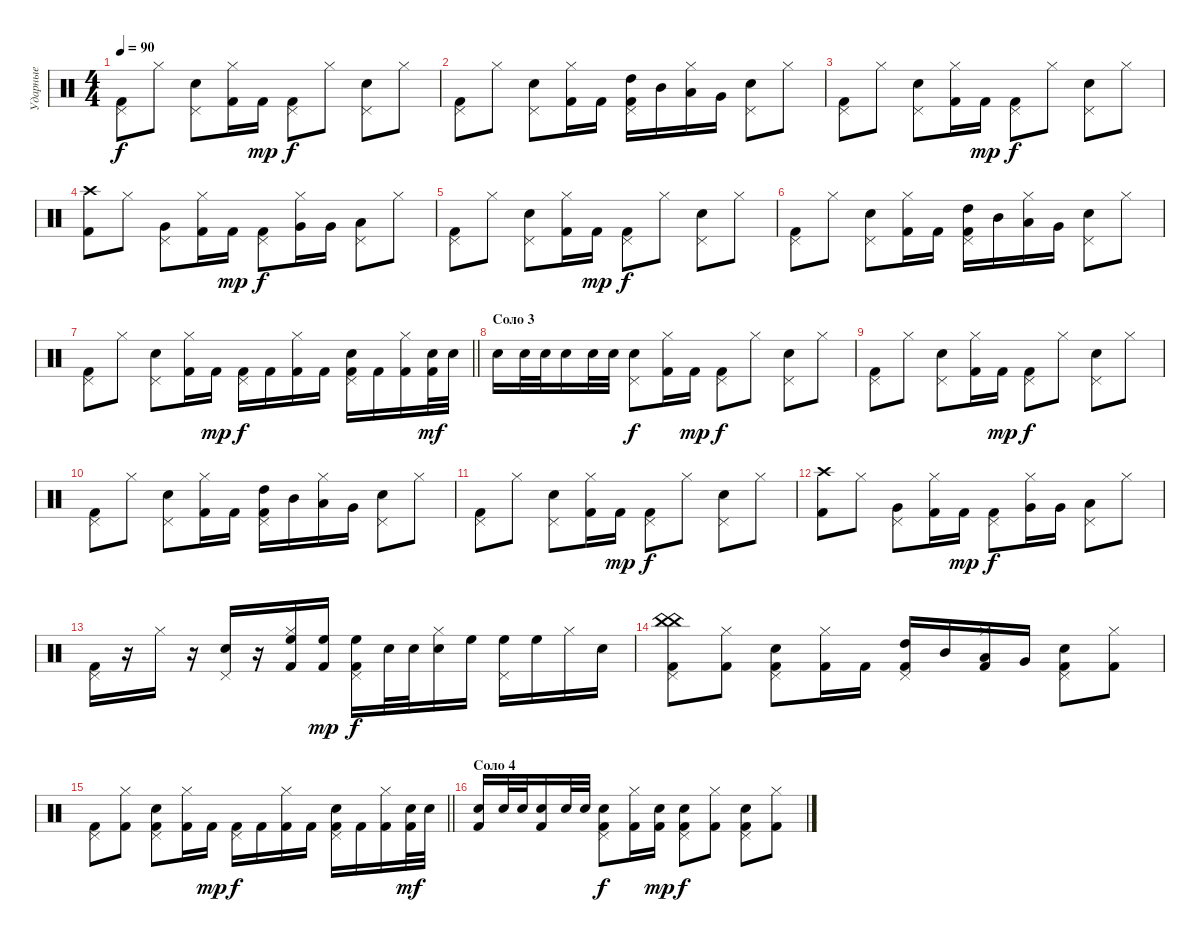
\track ("Ударные" "Ударные") {instrument percussion}
\staff {score}
\articulation defaults
\ts (4 4)
\tempo 90
\clef neutral
\ks c
("Pedal Hi-Hat (hit)" "Kick (hit) 2").8{dy f} "Hi-Hat (closed)".8 ("Pedal Hi-Hat (hit)" "Snare (hit) 2").8 ("Hi-Hat (closed)" "Kick (hit) 2").16 "Kick (hit) 2".16{dy mp} ("Pedal Hi-Hat (hit)" "Kick (hit) 2").8{dy f} "Hi-Hat (closed)".8 ("Pedal Hi-Hat (hit)" "Snare (hit) 2").8 "Hi-Hat (closed)".8 |
("Pedal Hi-Hat (hit)" "Kick (hit) 2").8 "Hi-Hat (closed)".8 ("Pedal Hi-Hat (hit)" "Snare (hit) 2").8 ("Hi-Hat (closed)" "Kick (hit) 2").16 "Kick (hit) 2".16 ("Pedal Hi-Hat (hit)" "High Tom (hit)" "Kick (hit) 2").16 "Mid Tom (hit)".16 ("Hi-Hat (closed)" "Low Tom (hit)").16 "Very Low Tom (hit)".16 ("Pedal Hi-Hat (hit)" "Snare (hit) 2").8 "Hi-Hat (closed)".8 |
("Pedal Hi-Hat (hit)" "Kick (hit) 2").8 "Hi-Hat (closed)".8 ("Pedal Hi-Hat (hit)" "Snare (hit) 2").8 ("Hi-Hat (closed)" "Kick (hit) 2").16 "Kick (hit) 2".16{dy mp} ("Pedal Hi-Hat (hit)" "Kick (hit) 2").8{dy f} "Hi-Hat (closed)".8 ("Pedal Hi-Hat (hit)" "Snare (hit) 2").8 "Hi-Hat (closed)".8 |
("Crash high (hit)" "Kick (hit) 2").8 "Hi-Hat (closed)".8 ("Pedal Hi-Hat (hit)" "Very Low Tom (hit)").8 ("Hi-Hat (closed)" "Kick (hit) 2").16 "Kick (hit) 2".16{dy mp} ("Pedal Hi-Hat (hit)" "Kick (hit) 2").8{dy f} ("Hi-Hat (closed)" "Very Low Tom (hit)").16 "Very Low Tom (hit)".16 ("Pedal Hi-Hat (hit)" "Low Floor Tom (hit)").8 "Hi-Hat (closed)".8 |
("Pedal Hi-Hat (hit)" "Kick (hit) 2").8 "Hi-Hat (closed)".8 ("Pedal Hi-Hat (hit)" "Snare (hit) 2").8 ("Hi-Hat (closed)" "Kick (hit) 2").16 "Kick (hit) 2".16{dy mp} ("Pedal Hi-Hat (hit)" "Kick (hit) 2").8{dy f} "Hi-Hat (closed)".8 ("Pedal Hi-Hat (hit)" "Snare (hit) 2").8 "Hi-Hat (closed)".8 |
("Pedal Hi-Hat (hit)" "Kick (hit) 2").8 "Hi-Hat (closed)".8 ("Pedal Hi-Hat (hit)" "Snare (hit) 2").8 ("Hi-Hat (closed)" "Kick (hit) 2").16 "Kick (hit) 2".16 ("Pedal Hi-Hat (hit)" "High Tom (hit)" "Kick (hit) 2").16 "Mid Tom (hit)".16 ("Hi-Hat (closed)" "Low Tom (hit)").16 "Very Low Tom (hit)".16 ("Pedal Hi-Hat (hit)" "Snare (hit) 2").8 "Hi-Hat (closed)".8 |
\barLineRight lightlight
("Pedal Hi-Hat (hit)" "Kick (hit) 2").8 "Hi-Hat (closed)".8 ("Pedal Hi-Hat (hit)" "Snare (hit) 2").8 ("Hi-Hat (closed)" "Kick (hit) 2").16 "Kick (hit) 2".16{dy mp} ("Pedal Hi-Hat (hit)" "Kick (hit) 2").16{dy f} "Kick (hit) 2".16 ("Hi-Hat (closed)" "Kick (hit) 2").16 "Kick (hit) 2".16 ("Pedal Hi-Hat (hit)" "Snare (hit) 2" "Kick (hit) 2").16 "Kick (hit) 2".16 ("Hi-Hat (closed)" "Kick (hit) 2").16 ("Snare (hit) 2" "Kick (hit) 2").32{dy mf} "Snare (hit) 2".32 |
\section ("" "Соло 3")
"Snare (hit) 2".16 "Snare (hit) 2".32 "Snare (hit) 2".32 "Snare (hit) 2".16 "Snare (hit) 2".32 "Snare (hit) 2".32 ("Pedal Hi-Hat (hit)" "Snare (hit) 2").8{dy f} ("Hi-Hat (closed)" "Kick (hit) 2").16 "Kick (hit) 2".16{dy mp} ("Pedal Hi-Hat (hit)" "Kick (hit) 2").8{dy f} "Hi-Hat (closed)".8 ("Pedal Hi-Hat (hit)" "Snare (hit) 2").8 "Hi-Hat (closed)".8 |
("Pedal Hi-Hat (hit)" "Kick (hit) 2").8 "Hi-Hat (closed)".8 ("Pedal Hi-Hat (hit)" "Snare (hit) 2").8 ("Hi-Hat (closed)" "Kick (hit) 2").16 "Kick (hit) 2".16{dy mp} ("Pedal Hi-Hat (hit)" "Kick (hit) 2").8{dy f} "Hi-Hat (closed)".8 ("Pedal Hi-Hat (hit)" "Snare (hit) 2").8 "Hi-Hat (closed)".8 |
("Pedal Hi-Hat (hit)" "Kick (hit) 2").8 "Hi-Hat (closed)".8 ("Pedal Hi-Hat (hit)" "Snare (hit) 2").8 ("Hi-Hat (closed)" "Kick (hit) 2").16 "Kick (hit) 2".16 ("Pedal Hi-Hat (hit)" "High Tom (hit)" "Kick (hit) 2").16 "Mid Tom (hit)".16 ("Hi-Hat (closed)" "Low Tom (hit)").16 "Very Low Tom (hit)".16 ("Pedal Hi-Hat (hit)" "Snare (hit) 2").8 "Hi-Hat (closed)".8 |
("Pedal Hi-Hat (hit)" "Kick (hit) 2").8 "Hi-Hat (closed)".8 ("Pedal Hi-Hat (hit)" "Snare (hit) 2").8 ("Hi-Hat (closed)" "Kick (hit) 2").16 "Kick (hit) 2".16{dy mp} ("Pedal Hi-Hat (hit)" "Kick (hit) 2").8{dy f} "Hi-Hat (closed)".8 ("Pedal Hi-Hat (hit)" "Snare (hit) 2").8 "Hi-Hat (closed)".8 |
("Crash high (hit)" "Kick (hit) 2").8 "Hi-Hat (closed)".8 ("Pedal Hi-Hat (hit)" "Very Low Tom (hit)").8 ("Hi-Hat (closed)" "Kick (hit) 2").16 "Kick (hit) 2".16{dy mp} ("Pedal Hi-Hat (hit)" "Kick (hit) 2").8{dy f} ("Hi-Hat (closed)" "Very Low Tom (hit)").16 "Very Low Tom (hit)".16 ("Pedal Hi-Hat (hit)" "Low Floor Tom (hit)").8 "Hi-Hat (closed)".8 |
("Pedal Hi-Hat (hit)" "Kick (hit) 2").16 r.16 "Hi-Hat (closed)".16 r.16 ("Pedal Hi-Hat (hit)" "Snare (hit) 2").16 r.16 ("Hi-Hat (closed)" "High Floor Tom (hit)" "Kick (hit) 2").16 ("High Floor Tom (hit)" "Kick (hit) 2").16{dy mp} ("Pedal Hi-Hat (hit)" "High Floor Tom (hit)" "Kick (hit) 2").16{dy f} "Snare (hit) 2".32 "Snare (hit) 2".32 ("Hi-Hat (closed)" "Snare (hit) 2").16 "High Floor Tom (hit)".16 ("Pedal Hi-Hat (hit)" "High Floor Tom (hit)").16 "High Floor Tom (hit)".16 "Hi-Hat (closed)".16 "Snare (hit) 2".16 |
("Pedal Hi-Hat (hit)" "China (hit)" "China (hit)" "Kick (hit) 2").8 ("Hi-Hat (closed)" "Kick (hit) 2").8 ("Pedal Hi-Hat (hit)" "Snare (hit) 2" "Kick (hit) 2").8 ("Hi-Hat (closed)" "Kick (hit) 2").16 "Kick (hit) 2".16 ("Pedal Hi-Hat (hit)" "High Tom (hit)" "Kick (hit) 2").16 "Mid Tom (hit)".16 ("Hi-Hat (closed)" "Low Tom (hit)" "Kick (hit) 2").16 "Very Low Tom (hit)".16 ("Pedal Hi-Hat (hit)" "Snare (hit) 2" "Kick (hit) 2").8 ("Hi-Hat (closed)" "Kick (hit) 2").8 |
\barLineRight lightlight
("Pedal Hi-Hat (hit)" "Kick (hit) 2").8 ("Hi-Hat (closed)" "Kick (hit) 2").8 ("Pedal Hi-Hat (hit)" "Snare (hit) 2" "Kick (hit) 2").8 ("Hi-Hat (closed)" "Kick (hit) 2").16 "Kick (hit) 2".16{dy mp} ("Pedal Hi-Hat (hit)" "Kick (hit) 2").16{dy f} "Kick (hit) 2".16 ("Hi-Hat (closed)" "Kick (hit) 2").16 "Kick (hit) 2".16 ("Pedal Hi-Hat (hit)" "Snare (hit) 2" "Kick (hit) 2").16 "Kick (hit) 2".16 ("Hi-Hat (closed)" "Kick (hit) 2").16 ("Snare (hit) 2" "Kick (hit) 2").32{dy mf} "Snare (hit) 2".32 |
\section ("" "Соло 4")
("Snare (hit) 2" "Kick (hit) 2").16 "Snare (hit) 2".32 "Snare (hit) 2".32 ("Snare (hit) 2" "Kick (hit) 2").16 "Snare (hit) 2".32 "Snare (hit) 2".32 ("Pedal Hi-Hat (hit)" "Snare (hit) 2" "Kick (hit) 2").8{dy f} ("Hi-Hat (closed)" "Kick (hit) 2").16 ("Snare (hit) 2" "Kick (hit) 2").16{dy mp} ("Pedal Hi-Hat (hit)" "Snare (hit) 2" "Kick (hit) 2").8{dy f} ("Hi-Hat (closed)" "Kick (hit) 2").8 ("Pedal Hi-Hat (hit)" "Snare (hit) 2" "Kick (hit) 2").8 ("Hi-Hat (closed)" "Kick (hit) 2").8
